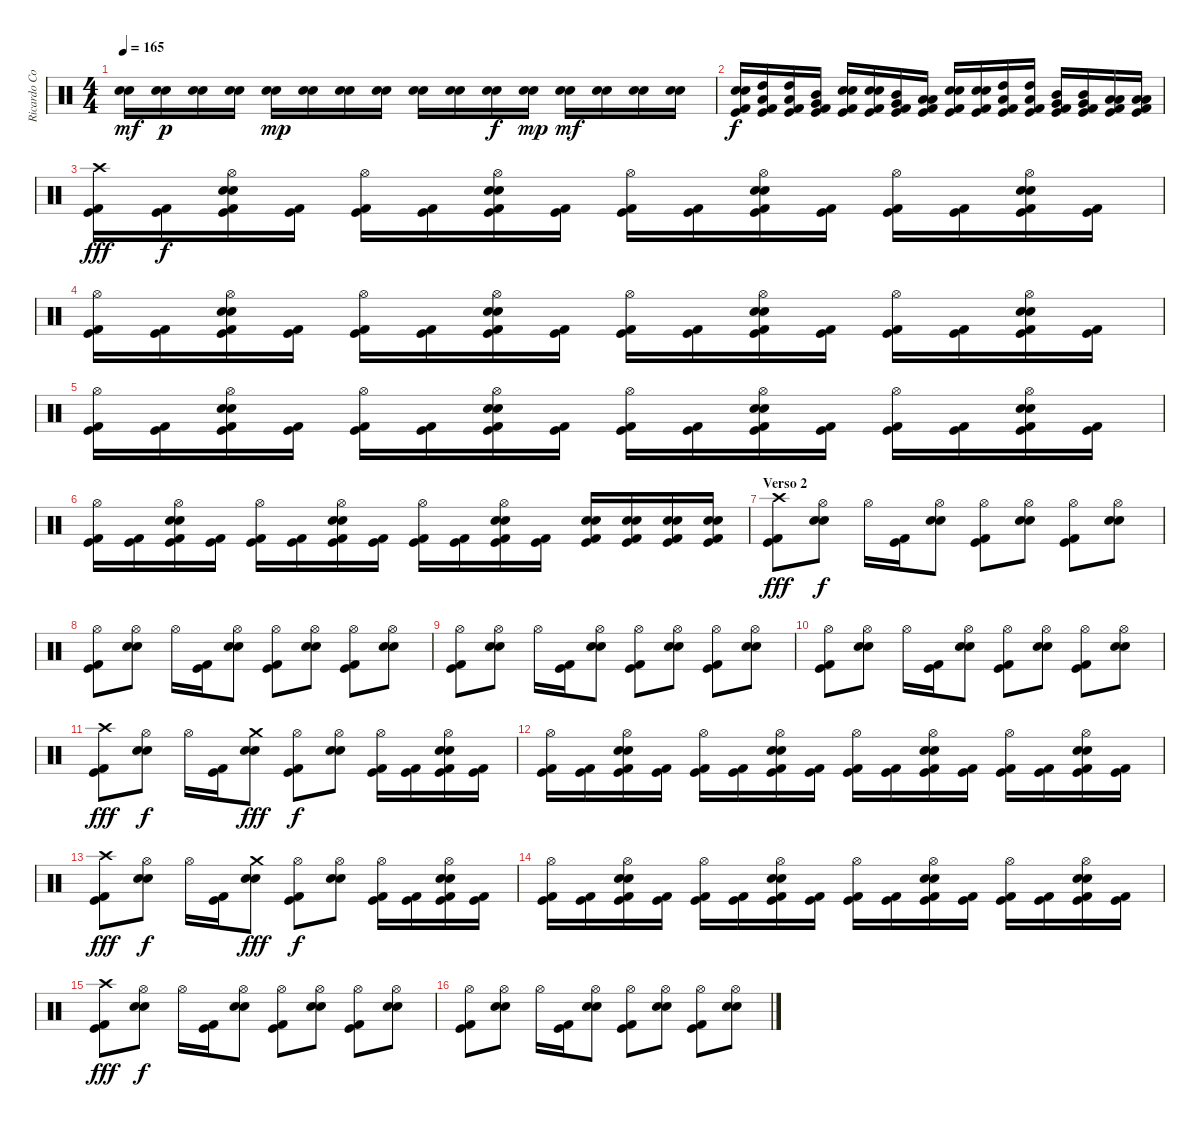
\track ("Ricardo Confessori" "Ricardo Co") {instrument percussion}
\staff {score}
\articulation defaults
\ts (4 4)
\tempo 165
\clef neutral
\ks c
("Electric Snare (hit)" "Snare (hit) 2").16{dy mf} ("Electric Snare (hit)" "Snare (hit) 2").16{dy p} ("Electric Snare (hit)" "Snare (hit) 2").16 ("Electric Snare (hit)" "Snare (hit) 2").16 ("Electric Snare (hit)" "Snare (hit) 2").16{dy mp} ("Electric Snare (hit)" "Snare (hit) 2").16 ("Electric Snare (hit)" "Snare (hit) 2").16 ("Electric Snare (hit)" "Snare (hit) 2").16 ("Electric Snare (hit)" "Snare (hit) 2").16 ("Electric Snare (hit)" "Snare (hit) 2").16 ("Electric Snare (hit)" "Snare (hit) 2").16{dy f} ("Electric Snare (hit)" "Snare (hit) 2").16{dy mp} ("Electric Snare (hit)" "Snare (hit) 2").16{dy mf} ("Electric Snare (hit)" "Snare (hit) 2").16 ("Electric Snare (hit)" "Snare (hit) 2").16 ("Electric Snare (hit)" "Snare (hit) 2").16 |
("Electric Snare (hit)" "Snare (hit) 2" "Kick (hit) 2" "Kick (hit)").16{dy f} ("High Tom (hit)" "Low Tom (hit)" "Kick (hit) 2" "Kick (hit)").16 ("High Tom (hit)" "Low Tom (hit)" "Kick (hit) 2" "Kick (hit)").16 ("Mid Tom (hit)" "Very Low Tom (hit)" "Kick (hit) 2" "Kick (hit)").16 ("Electric Snare (hit)" "Snare (hit) 2" "Kick (hit) 2" "Kick (hit)").16 ("Electric Snare (hit)" "Snare (hit) 2" "Kick (hit) 2" "Kick (hit)").16 ("Mid Tom (hit)" "Very Low Tom (hit)" "Kick (hit) 2" "Kick (hit)").16 ("Low Tom (hit)" "Low Floor Tom (hit)" "Kick (hit) 2" "Kick (hit)").16 ("Electric Snare (hit)" "Snare (hit) 2" "Kick (hit) 2" "Kick (hit)").16 ("Electric Snare (hit)" "Snare (hit) 2" "Kick (hit) 2" "Kick (hit)").16 ("High Tom (hit)" "Low Tom (hit)" "Kick (hit) 2" "Kick (hit)").16 ("High Tom (hit)" "Low Tom (hit)" "Kick (hit) 2" "Kick (hit)").16 ("Mid Tom (hit)" "Very Low Tom (hit)" "Kick (hit) 2" "Kick (hit)").16 ("Mid Tom (hit)" "Very Low Tom (hit)" "Kick (hit) 2" "Kick (hit)").16 ("Low Tom (hit)" "Low Floor Tom (hit)" "Kick (hit) 2" "Kick (hit)").16 ("Low Tom (hit)" "Low Floor Tom (hit)" "Kick (hit) 2" "Kick (hit)").16 |
("Crash high (hit)" "Kick (hit) 2" "Kick (hit)").16{dy fff} ("Kick (hit) 2" "Kick (hit)").16{dy f} ("Hi-Hat (open)" "Electric Snare (hit)" "Snare (hit) 2" "Kick (hit) 2" "Kick (hit)").16 ("Kick (hit) 2" "Kick (hit)").16 ("Hi-Hat (open)" "Kick (hit) 2" "Kick (hit)").16 ("Kick (hit) 2" "Kick (hit)").16 ("Hi-Hat (open)" "Electric Snare (hit)" "Snare (hit) 2" "Kick (hit) 2" "Kick (hit)").16 ("Kick (hit) 2" "Kick (hit)").16 ("Hi-Hat (open)" "Kick (hit) 2" "Kick (hit)").16 ("Kick (hit) 2" "Kick (hit)").16 ("Hi-Hat (open)" "Electric Snare (hit)" "Snare (hit) 2" "Kick (hit) 2" "Kick (hit)").16 ("Kick (hit) 2" "Kick (hit)").16 ("Hi-Hat (open)" "Kick (hit) 2" "Kick (hit)").16 ("Kick (hit) 2" "Kick (hit)").16 ("Hi-Hat (open)" "Electric Snare (hit)" "Snare (hit) 2" "Kick (hit) 2" "Kick (hit)").16 ("Kick (hit) 2" "Kick (hit)").16 |
("Hi-Hat (open)" "Kick (hit) 2" "Kick (hit)").16 ("Kick (hit) 2" "Kick (hit)").16 ("Hi-Hat (open)" "Electric Snare (hit)" "Snare (hit) 2" "Kick (hit) 2" "Kick (hit)").16 ("Kick (hit) 2" "Kick (hit)").16 ("Hi-Hat (open)" "Kick (hit) 2" "Kick (hit)").16 ("Kick (hit) 2" "Kick (hit)").16 ("Hi-Hat (open)" "Electric Snare (hit)" "Snare (hit) 2" "Kick (hit) 2" "Kick (hit)").16 ("Kick (hit) 2" "Kick (hit)").16 ("Hi-Hat (open)" "Kick (hit) 2" "Kick (hit)").16 ("Kick (hit) 2" "Kick (hit)").16 ("Hi-Hat (open)" "Electric Snare (hit)" "Snare (hit) 2" "Kick (hit) 2" "Kick (hit)").16 ("Kick (hit) 2" "Kick (hit)").16 ("Hi-Hat (open)" "Kick (hit) 2" "Kick (hit)").16 ("Kick (hit) 2" "Kick (hit)").16 ("Hi-Hat (open)" "Electric Snare (hit)" "Snare (hit) 2" "Kick (hit) 2" "Kick (hit)").16 ("Kick (hit) 2" "Kick (hit)").16 |
("Hi-Hat (open)" "Kick (hit) 2" "Kick (hit)").16 ("Kick (hit) 2" "Kick (hit)").16 ("Hi-Hat (open)" "Electric Snare (hit)" "Snare (hit) 2" "Kick (hit) 2" "Kick (hit)").16 ("Kick (hit) 2" "Kick (hit)").16 ("Hi-Hat (open)" "Kick (hit) 2" "Kick (hit)").16 ("Kick (hit) 2" "Kick (hit)").16 ("Hi-Hat (open)" "Electric Snare (hit)" "Snare (hit) 2" "Kick (hit) 2" "Kick (hit)").16 ("Kick (hit) 2" "Kick (hit)").16 ("Hi-Hat (open)" "Kick (hit) 2" "Kick (hit)").16 ("Kick (hit) 2" "Kick (hit)").16 ("Hi-Hat (open)" "Electric Snare (hit)" "Snare (hit) 2" "Kick (hit) 2" "Kick (hit)").16 ("Kick (hit) 2" "Kick (hit)").16 ("Hi-Hat (open)" "Kick (hit) 2" "Kick (hit)").16 ("Kick (hit) 2" "Kick (hit)").16 ("Hi-Hat (open)" "Electric Snare (hit)" "Snare (hit) 2" "Kick (hit) 2" "Kick (hit)").16 ("Kick (hit) 2" "Kick (hit)").16 |
("Hi-Hat (open)" "Kick (hit) 2" "Kick (hit)").16 ("Kick (hit) 2" "Kick (hit)").16 ("Hi-Hat (open)" "Electric Snare (hit)" "Snare (hit) 2" "Kick (hit) 2" "Kick (hit)").16 ("Kick (hit) 2" "Kick (hit)").16 ("Hi-Hat (open)" "Kick (hit) 2" "Kick (hit)").16 ("Kick (hit) 2" "Kick (hit)").16 ("Hi-Hat (open)" "Electric Snare (hit)" "Snare (hit) 2" "Kick (hit) 2" "Kick (hit)").16 ("Kick (hit) 2" "Kick (hit)").16 ("Hi-Hat (open)" "Kick (hit) 2" "Kick (hit)").16 ("Kick (hit) 2" "Kick (hit)").16 ("Hi-Hat (open)" "Electric Snare (hit)" "Snare (hit) 2" "Kick (hit) 2" "Kick (hit)").16 ("Kick (hit) 2" "Kick (hit)").16 ("Electric Snare (hit)" "Snare (hit) 2" "Kick (hit) 2" "Kick (hit)").16 ("Electric Snare (hit)" "Snare (hit) 2" "Kick (hit) 2" "Kick (hit)").16 ("Electric Snare (hit)" "Snare (hit) 2" "Kick (hit) 2" "Kick (hit)").16 ("Electric Snare (hit)" "Snare (hit) 2" "Kick (hit) 2" "Kick (hit)").16 |
\section ("" "Verso 2")
("Crash high (hit)" "Kick (hit) 2" "Kick (hit)").8{dy fff} ("Hi-Hat (open)" "Electric Snare (hit)" "Snare (hit) 2").8{dy f} "Hi-Hat (open)".16 ("Kick (hit) 2" "Kick (hit)").16 ("Hi-Hat (open)" "Electric Snare (hit)" "Snare (hit) 2").8 ("Hi-Hat (open)" "Kick (hit) 2" "Kick (hit)").8 ("Hi-Hat (open)" "Electric Snare (hit)" "Snare (hit) 2").8 ("Hi-Hat (open)" "Kick (hit) 2" "Kick (hit)").8 ("Hi-Hat (open)" "Electric Snare (hit)" "Snare (hit) 2").8 |
("Hi-Hat (open)" "Kick (hit) 2" "Kick (hit)").8 ("Hi-Hat (open)" "Electric Snare (hit)" "Snare (hit) 2").8 "Hi-Hat (open)".16 ("Kick (hit) 2" "Kick (hit)").16 ("Hi-Hat (open)" "Electric Snare (hit)" "Snare (hit) 2").8 ("Hi-Hat (open)" "Kick (hit) 2" "Kick (hit)").8 ("Hi-Hat (open)" "Electric Snare (hit)" "Snare (hit) 2").8 ("Hi-Hat (open)" "Kick (hit) 2" "Kick (hit)").8 ("Hi-Hat (open)" "Electric Snare (hit)" "Snare (hit) 2").8 |
("Hi-Hat (open)" "Kick (hit) 2" "Kick (hit)").8 ("Hi-Hat (open)" "Electric Snare (hit)" "Snare (hit) 2").8 "Hi-Hat (open)".16 ("Kick (hit) 2" "Kick (hit)").16 ("Hi-Hat (open)" "Electric Snare (hit)" "Snare (hit) 2").8 ("Hi-Hat (open)" "Kick (hit) 2" "Kick (hit)").8 ("Hi-Hat (open)" "Electric Snare (hit)" "Snare (hit) 2").8 ("Hi-Hat (open)" "Kick (hit) 2" "Kick (hit)").8 ("Hi-Hat (open)" "Electric Snare (hit)" "Snare (hit) 2").8 |
("Hi-Hat (open)" "Kick (hit) 2" "Kick (hit)").8 ("Hi-Hat (open)" "Electric Snare (hit)" "Snare (hit) 2").8 "Hi-Hat (open)".16 ("Kick (hit) 2" "Kick (hit)").16 ("Hi-Hat (open)" "Electric Snare (hit)" "Snare (hit) 2").8 ("Hi-Hat (open)" "Kick (hit) 2" "Kick (hit)").8 ("Hi-Hat (open)" "Electric Snare (hit)" "Snare (hit) 2").8 ("Hi-Hat (open)" "Kick (hit) 2" "Kick (hit)").8 ("Hi-Hat (open)" "Electric Snare (hit)" "Snare (hit) 2").8 |
("Crash high (hit)" "Kick (hit) 2" "Kick (hit)").8{dy fff} ("Hi-Hat (open)" "Electric Snare (hit)" "Snare (hit) 2").8{dy f} "Hi-Hat (open)".16 ("Kick (hit) 2" "Kick (hit)").16 ("Crash medium (hit)" "Electric Snare (hit)" "Snare (hit) 2").8{dy fff} ("Hi-Hat (open)" "Kick (hit) 2" "Kick (hit)").8{dy f} ("Hi-Hat (open)" "Electric Snare (hit)" "Snare (hit) 2").8 ("Hi-Hat (open)" "Kick (hit) 2" "Kick (hit)").16 ("Kick (hit) 2" "Kick (hit)").16 ("Hi-Hat (open)" "Electric Snare (hit)" "Snare (hit) 2" "Kick (hit) 2" "Kick (hit)").16 ("Kick (hit) 2" "Kick (hit)").16 |
("Hi-Hat (open)" "Kick (hit) 2" "Kick (hit)").16 ("Kick (hit) 2" "Kick (hit)").16 ("Hi-Hat (open)" "Electric Snare (hit)" "Snare (hit) 2" "Kick (hit) 2" "Kick (hit)").16 ("Kick (hit) 2" "Kick (hit)").16 ("Hi-Hat (open)" "Kick (hit) 2" "Kick (hit)").16 ("Kick (hit) 2" "Kick (hit)").16 ("Hi-Hat (open)" "Electric Snare (hit)" "Snare (hit) 2" "Kick (hit) 2" "Kick (hit)").16 ("Kick (hit) 2" "Kick (hit)").16 ("Hi-Hat (open)" "Kick (hit) 2" "Kick (hit)").16 ("Kick (hit) 2" "Kick (hit)").16 ("Hi-Hat (open)" "Electric Snare (hit)" "Snare (hit) 2" "Kick (hit) 2" "Kick (hit)").16 ("Kick (hit) 2" "Kick (hit)").16 ("Hi-Hat (open)" "Kick (hit) 2" "Kick (hit)").16 ("Kick (hit) 2" "Kick (hit)").16 ("Hi-Hat (open)" "Electric Snare (hit)" "Snare (hit) 2" "Kick (hit) 2" "Kick (hit)").16 ("Kick (hit) 2" "Kick (hit)").16 |
("Crash high (hit)" "Kick (hit) 2" "Kick (hit)").8{dy fff} ("Hi-Hat (open)" "Electric Snare (hit)" "Snare (hit) 2").8{dy f} "Hi-Hat (open)".16 ("Kick (hit) 2" "Kick (hit)").16 ("Crash medium (hit)" "Electric Snare (hit)" "Snare (hit) 2").8{dy fff} ("Hi-Hat (open)" "Kick (hit) 2" "Kick (hit)").8{dy f} ("Hi-Hat (open)" "Electric Snare (hit)" "Snare (hit) 2").8 ("Hi-Hat (open)" "Kick (hit) 2" "Kick (hit)").16 ("Kick (hit) 2" "Kick (hit)").16 ("Hi-Hat (open)" "Electric Snare (hit)" "Snare (hit) 2" "Kick (hit) 2" "Kick (hit)").16 ("Kick (hit) 2" "Kick (hit)").16 |
("Hi-Hat (open)" "Kick (hit) 2" "Kick (hit)").16 ("Kick (hit) 2" "Kick (hit)").16 ("Hi-Hat (open)" "Electric Snare (hit)" "Snare (hit) 2" "Kick (hit) 2" "Kick (hit)").16 ("Kick (hit) 2" "Kick (hit)").16 ("Hi-Hat (open)" "Kick (hit) 2" "Kick (hit)").16 ("Kick (hit) 2" "Kick (hit)").16 ("Hi-Hat (open)" "Electric Snare (hit)" "Snare (hit) 2" "Kick (hit) 2" "Kick (hit)").16 ("Kick (hit) 2" "Kick (hit)").16 ("Hi-Hat (open)" "Kick (hit) 2" "Kick (hit)").16 ("Kick (hit) 2" "Kick (hit)").16 ("Hi-Hat (open)" "Electric Snare (hit)" "Snare (hit) 2" "Kick (hit) 2" "Kick (hit)").16 ("Kick (hit) 2" "Kick (hit)").16 ("Hi-Hat (open)" "Kick (hit) 2" "Kick (hit)").16 ("Kick (hit) 2" "Kick (hit)").16 ("Hi-Hat (open)" "Electric Snare (hit)" "Snare (hit) 2" "Kick (hit) 2" "Kick (hit)").16 ("Kick (hit) 2" "Kick (hit)").16 |
("Crash high (hit)" "Kick (hit) 2" "Kick (hit)").8{dy fff} ("Hi-Hat (open)" "Electric Snare (hit)" "Snare (hit) 2").8{dy f} "Hi-Hat (open)".16 ("Kick (hit) 2" "Kick (hit)").16 ("Hi-Hat (open)" "Electric Snare (hit)" "Snare (hit) 2").8 ("Hi-Hat (open)" "Kick (hit) 2" "Kick (hit)").8 ("Hi-Hat (open)" "Electric Snare (hit)" "Snare (hit) 2").8 ("Hi-Hat (open)" "Kick (hit) 2" "Kick (hit)").8 ("Hi-Hat (open)" "Electric Snare (hit)" "Snare (hit) 2").8 |
("Hi-Hat (open)" "Kick (hit) 2" "Kick (hit)").8 ("Hi-Hat (open)" "Electric Snare (hit)" "Snare (hit) 2").8 "Hi-Hat (open)".16 ("Kick (hit) 2" "Kick (hit)").16 ("Hi-Hat (open)" "Electric Snare (hit)" "Snare (hit) 2").8 ("Hi-Hat (open)" "Kick (hit) 2" "Kick (hit)").8 ("Hi-Hat (open)" "Electric Snare (hit)" "Snare (hit) 2").8 ("Hi-Hat (open)" "Kick (hit) 2" "Kick (hit)").8 ("Hi-Hat (open)" "Electric Snare (hit)" "Snare (hit) 2").8
